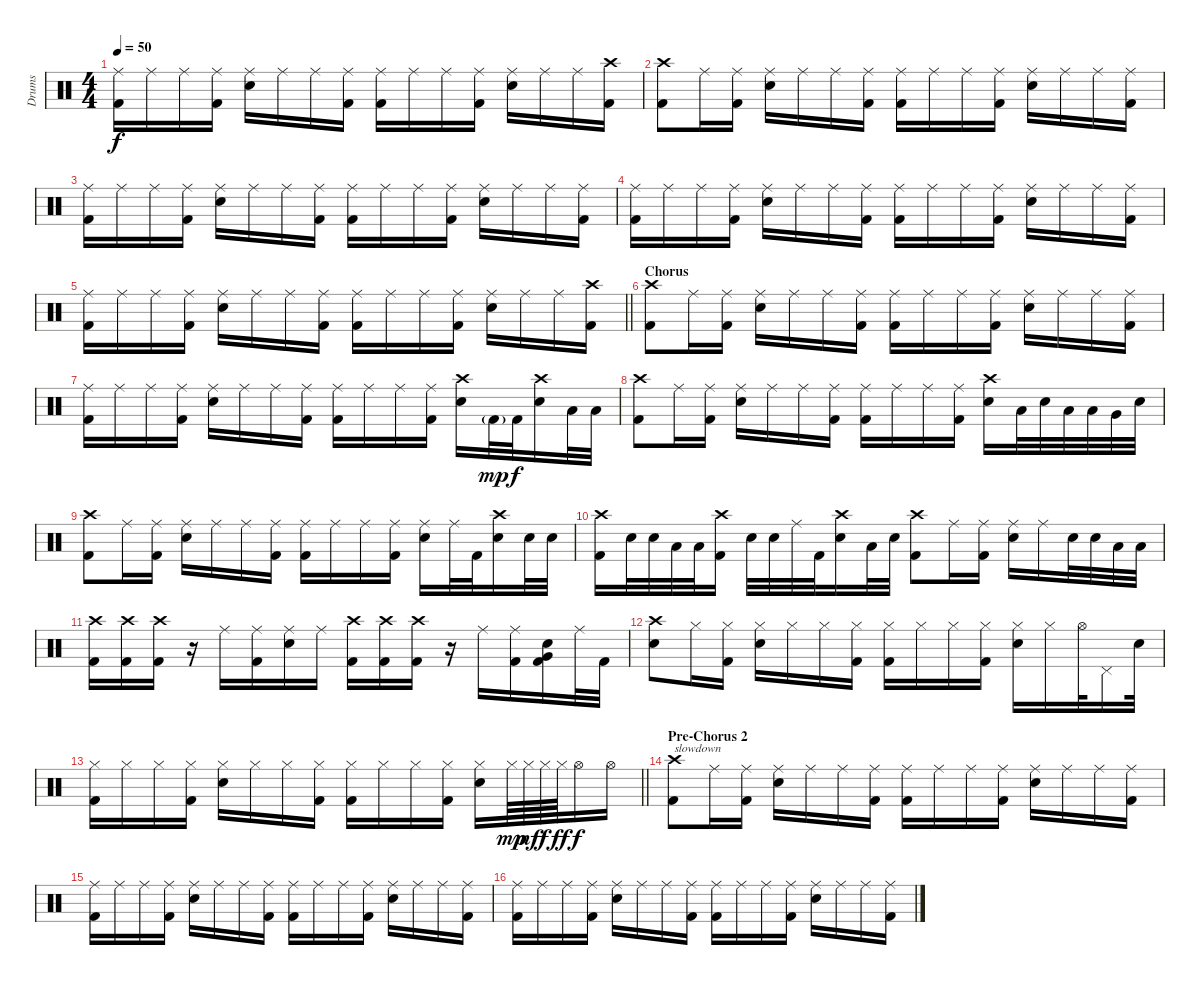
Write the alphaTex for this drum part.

\track ("Drums" "Drums") {instrument percussion}
\staff {score}
\articulation defaults
\ts (4 4)
\tempo 50
\clef neutral
\ks c
("Ride (middle)" "Kick (hit) 2").16{dy f} "Ride (middle)".16 "Ride (middle)".16 ("Ride (middle)" "Kick (hit) 2").16 ("Ride (middle)" "Snare (hit) 2").16 "Ride (middle)".16 "Ride (middle)".16 ("Ride (middle)" "Kick (hit) 2").16 ("Ride (middle)" "Kick (hit) 2").16 "Ride (middle)".16 "Ride (middle)".16 ("Ride (middle)" "Kick (hit) 2").16 ("Ride (middle)" "Snare (hit) 2").16 "Ride (middle)".16 "Ride (middle)".16 ("Crash high (hit)" "Kick (hit) 2").16 |
("Crash high (hit)" "Kick (hit) 2").8 "Ride (middle)".16 ("Ride (middle)" "Kick (hit) 2").16 ("Ride (middle)" "Snare (hit) 2").16 "Ride (middle)".16 "Ride (middle)".16 ("Ride (middle)" "Kick (hit) 2").16 ("Ride (middle)" "Kick (hit) 2").16 "Ride (middle)".16 "Ride (middle)".16 ("Ride (middle)" "Kick (hit) 2").16 ("Ride (middle)" "Snare (hit) 2").16 "Ride (middle)".16 "Ride (middle)".16 ("Ride (middle)" "Kick (hit) 2").16 |
("Ride (middle)" "Kick (hit) 2").16 "Ride (middle)".16 "Ride (middle)".16 ("Ride (middle)" "Kick (hit) 2").16 ("Ride (middle)" "Snare (hit) 2").16 "Ride (middle)".16 "Ride (middle)".16 ("Ride (middle)" "Kick (hit) 2").16 ("Ride (middle)" "Kick (hit) 2").16 "Ride (middle)".16 "Ride (middle)".16 ("Ride (middle)" "Kick (hit) 2").16 ("Ride (middle)" "Snare (hit) 2").16 "Ride (middle)".16 "Ride (middle)".16 ("Ride (middle)" "Kick (hit) 2").16 |
("Ride (middle)" "Kick (hit) 2").16 "Ride (middle)".16 "Ride (middle)".16 ("Ride (middle)" "Kick (hit) 2").16 ("Ride (middle)" "Snare (hit) 2").16 "Ride (middle)".16 "Ride (middle)".16 ("Ride (middle)" "Kick (hit) 2").16 ("Ride (middle)" "Kick (hit) 2").16 "Ride (middle)".16 "Ride (middle)".16 ("Ride (middle)" "Kick (hit) 2").16 ("Ride (middle)" "Snare (hit) 2").16 "Ride (middle)".16 "Ride (middle)".16 ("Ride (middle)" "Kick (hit) 2").16 |
\barLineRight lightlight
("Ride (middle)" "Kick (hit) 2").16 "Ride (middle)".16 "Ride (middle)".16 ("Ride (middle)" "Kick (hit) 2").16 ("Ride (middle)" "Snare (hit) 2").16 "Ride (middle)".16 "Ride (middle)".16 ("Ride (middle)" "Kick (hit) 2").16 ("Ride (middle)" "Kick (hit) 2").16 "Ride (middle)".16 "Ride (middle)".16 ("Ride (middle)" "Kick (hit) 2").16 ("Ride (middle)" "Snare (hit) 2").16 "Ride (middle)".16 "Ride (middle)".16 ("Crash high (hit)" "Kick (hit) 2").16 |
\section ("" "Chorus")
("Crash high (hit)" "Kick (hit) 2").8 "Ride (middle)".16 ("Ride (middle)" "Kick (hit) 2").16 ("Ride (middle)" "Snare (hit) 2").16 "Ride (middle)".16 "Ride (middle)".16 ("Ride (middle)" "Kick (hit) 2").16 ("Ride (middle)" "Kick (hit) 2").16 "Ride (middle)".16 "Ride (middle)".16 ("Ride (middle)" "Kick (hit) 2").16 ("Ride (middle)" "Snare (hit) 2").16 "Ride (middle)".16 "Ride (middle)".16 ("Ride (middle)" "Kick (hit) 2").16 |
("Ride (middle)" "Kick (hit) 2").16 "Ride (middle)".16 "Ride (middle)".16 ("Ride (middle)" "Kick (hit) 2").16 ("Ride (middle)" "Snare (hit) 2").16 "Ride (middle)".16 "Ride (middle)".16 ("Ride (middle)" "Kick (hit) 2").16 ("Ride (middle)" "Kick (hit) 2").16 "Ride (middle)".16 "Ride (middle)".16 ("Ride (middle)" "Kick (hit) 2").16 ("Crash high (hit)" "Snare (hit) 2").16 "Kick (hit) 2"{g}.32{dy mp} "Kick (hit) 2".32{dy f} ("Crash high (hit)" "Snare (hit) 2").16 "Low Tom (hit)".32 "Low Tom (hit)".32 |
("Crash high (hit)" "Kick (hit) 2").8 "Ride (middle)".16 ("Ride (middle)" "Kick (hit) 2").16 ("Ride (middle)" "Snare (hit) 2").16 "Ride (middle)".16 "Ride (middle)".16 ("Ride (middle)" "Kick (hit) 2").16 ("Ride (middle)" "Kick (hit) 2").16 "Ride (middle)".16 "Ride (middle)".16 ("Ride (middle)" "Kick (hit) 2").16 ("Crash high (hit)" "Snare (hit) 2").16 "Low Tom (hit)".32 "Snare (hit) 2".32 "Low Tom (hit)".32 "Low Tom (hit)".32 "Very Low Tom (hit)".32 "Snare (hit) 2".32 |
("Crash high (hit)" "Kick (hit) 2").8 "Ride (middle)".16 ("Ride (middle)" "Kick (hit) 2").16 ("Ride (middle)" "Snare (hit) 2").16 "Ride (middle)".16 "Ride (middle)".16 ("Ride (middle)" "Kick (hit) 2").16 ("Ride (middle)" "Kick (hit) 2").16 "Ride (middle)".16 "Ride (middle)".16 ("Ride (middle)" "Kick (hit) 2").16 ("Ride (middle)" "Snare (hit) 2").16 "Ride (middle)".32 "Kick (hit) 2".32 ("Crash high (hit)" "Snare (hit) 2").16 "Snare (hit) 2".32 "Snare (hit) 2".32 |
("Crash high (hit)" "Kick (hit) 2").16 "Snare (hit) 2".32 "Snare (hit) 2".32 "Low Tom (hit)".32 "Low Tom (hit)".32 ("Crash high (hit)" "Kick (hit) 2").16 "Snare (hit) 2".32 "Snare (hit) 2".32 "Ride (middle)".32 "Kick (hit) 2".32 ("Crash high (hit)" "Snare (hit) 2").16 "Low Tom (hit)".32 "Snare (hit) 2".32 ("Crash high (hit)" "Kick (hit) 2").8 "Ride (middle)".16 ("Ride (middle)" "Kick (hit) 2").16 ("Ride (middle)" "Snare (hit) 2").16 "Ride (middle)".16 "Snare (hit) 2".32 "Snare (hit) 2".32 "Low Tom (hit)".32 "Low Tom (hit)".32 |
("Crash high (hit)" "Kick (hit) 2").16 ("Crash high (hit)" "Kick (hit) 2").16 ("Crash high (hit)" "Kick (hit) 2").16 r.16 "Ride (middle)".16 ("Ride (middle)" "Kick (hit) 2").16 ("Ride (middle)" "Snare (hit) 2").16 "Ride (middle)".16 ("Crash high (hit)" "Kick (hit) 2").16 ("Crash high (hit)" "Kick (hit) 2").16 ("Crash high (hit)" "Kick (hit) 2").16 r.16 "Ride (middle)".16 ("Ride (middle)" "Kick (hit) 2").16 ("Very Low Tom (hit)" "Snare (hit) 2" "Kick (hit) 2").16 "Ride (middle)".32 "Kick (hit) 2".32 |
("Crash high (hit)" "Snare (hit) 2").8 "Hi-Hat (closed)".16 ("Hi-Hat (closed)" "Kick (hit) 2").16 ("Hi-Hat (closed)" "Snare (hit) 2").16 "Hi-Hat (closed)".16 "Hi-Hat (closed)".16 ("Hi-Hat (closed)" "Kick (hit) 2").16 ("Hi-Hat (closed)" "Kick (hit) 2").16 "Hi-Hat (closed)".16 "Hi-Hat (closed)".16 ("Hi-Hat (closed)" "Kick (hit) 2").16 ("Hi-Hat (closed)" "Snare (hit) 2").16 "Hi-Hat (closed)".16 "Hi-Hat (open)".32 "Pedal Hi-Hat (hit)".16 "Snare (hit) 2".32 |
\barLineRight lightlight
("Hi-Hat (closed)" "Kick (hit) 2").16 "Hi-Hat (closed)".16 "Hi-Hat (closed)".16 ("Hi-Hat (closed)" "Kick (hit) 2").16 ("Hi-Hat (closed)" "Snare (hit) 2").16 "Hi-Hat (closed)".16 "Hi-Hat (closed)".16 ("Hi-Hat (closed)" "Kick (hit) 2").16 ("Hi-Hat (closed)" "Kick (hit) 2").16 "Hi-Hat (closed)".16 "Hi-Hat (closed)".16 ("Hi-Hat (closed)" "Kick (hit) 2").16 ("Hi-Hat (closed)" "Snare (hit) 2").16 "Hi-Hat (closed)".64{dy mp} "Hi-Hat (closed)".64{dy mf} "Hi-Hat (closed)".64{dy f} "Hi-Hat (closed)".64{dy ff} "Hi-Hat (open)".16{dy f} "Hi-Hat (open)".16 |
\section ("" "Pre-Chorus 2")
("Crash high (hit)" "Kick (hit) 2").8{txt "slowdown"} "Ride (middle)".16 ("Ride (middle)" "Kick (hit) 2").16 ("Ride (middle)" "Snare (hit) 2").16 "Ride (middle)".16 "Ride (middle)".16 ("Ride (middle)" "Kick (hit) 2").16 ("Ride (middle)" "Kick (hit) 2").16 "Ride (middle)".16 "Ride (middle)".16 ("Ride (middle)" "Kick (hit) 2").16 ("Ride (middle)" "Snare (hit) 2").16 "Ride (middle)".16 "Ride (middle)".16 ("Ride (middle)" "Kick (hit) 2").16 |
("Ride (middle)" "Kick (hit) 2").16 "Ride (middle)".16 "Ride (middle)".16 ("Ride (middle)" "Kick (hit) 2").16 ("Ride (middle)" "Snare (hit) 2").16 "Ride (middle)".16 "Ride (middle)".16 ("Ride (middle)" "Kick (hit) 2").16 ("Ride (middle)" "Kick (hit) 2").16 "Ride (middle)".16 "Ride (middle)".16 ("Ride (middle)" "Kick (hit) 2").16 ("Ride (middle)" "Snare (hit) 2").16 "Ride (middle)".16 "Ride (middle)".16 ("Ride (middle)" "Kick (hit) 2").16 |
("Ride (middle)" "Kick (hit) 2").16 "Ride (middle)".16 "Ride (middle)".16 ("Ride (middle)" "Kick (hit) 2").16 ("Ride (middle)" "Snare (hit) 2").16 "Ride (middle)".16 "Ride (middle)".16 ("Ride (middle)" "Kick (hit) 2").16 ("Ride (middle)" "Kick (hit) 2").16 "Ride (middle)".16 "Ride (middle)".16 ("Ride (middle)" "Kick (hit) 2").16 ("Ride (middle)" "Snare (hit) 2").16 "Ride (middle)".16 "Ride (middle)".16 ("Ride (middle)" "Kick (hit) 2").16
